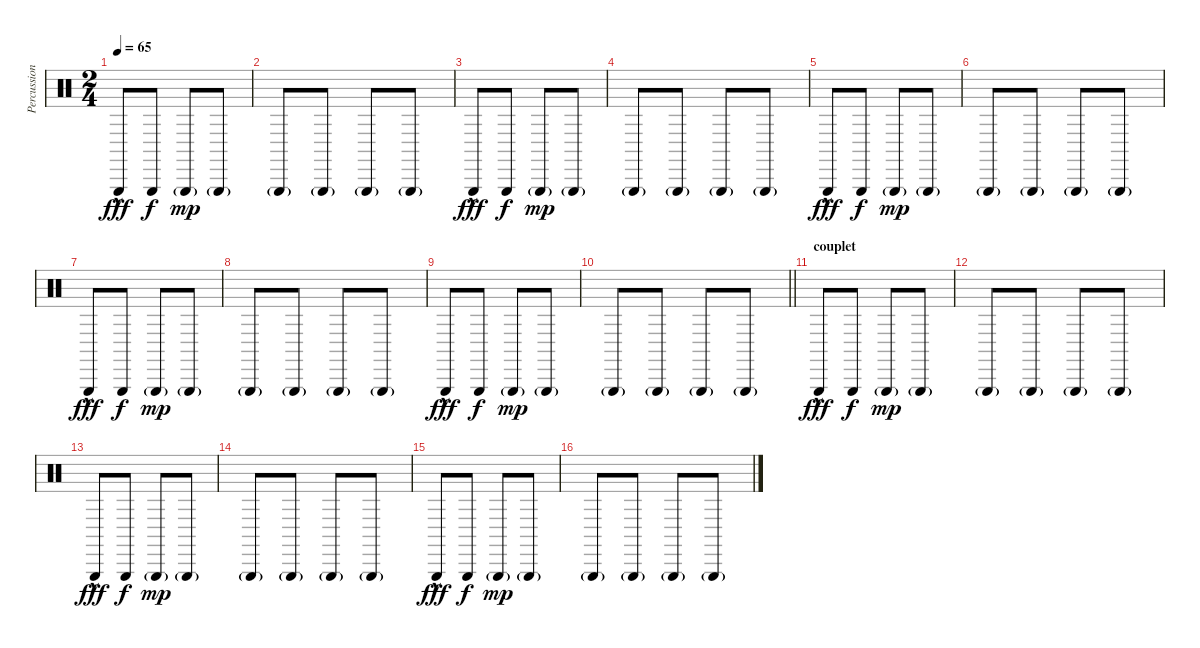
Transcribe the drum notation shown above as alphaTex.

\track ("Percussions" "Percussion") {instrument percussion}
\staff {score}
\articulation defaults
\ts (2 4)
\tempo 65
\clef neutral
\ks c "Triangle (hit)"{hac}.8{dy fff} "Triangle (hit)".8{dy f} "Triangle (hit)"{g}.8{dy mp} "Triangle (hit)"{g}.8
|
"Triangle (hit)"{g}.8 "Triangle (hit)"{g}.8 "Triangle (hit)"{g}.8 "Triangle (hit)"{g}.8 |
"Triangle (hit)"{hac}.8{dy fff} "Triangle (hit)".8{dy f} "Triangle (hit)"{g}.8{dy mp} "Triangle (hit)"{g}.8 |
"Triangle (hit)"{g}.8 "Triangle (hit)"{g}.8 "Triangle (hit)"{g}.8 "Triangle (hit)"{g}.8 |
"Triangle (hit)"{hac}.8{dy fff} "Triangle (hit)".8{dy f} "Triangle (hit)"{g}.8{dy mp} "Triangle (hit)"{g}.8 |
"Triangle (hit)"{g}.8 "Triangle (hit)"{g}.8 "Triangle (hit)"{g}.8 "Triangle (hit)"{g}.8 |
"Triangle (hit)"{hac}.8{dy fff} "Triangle (hit)".8{dy f} "Triangle (hit)"{g}.8{dy mp} "Triangle (hit)"{g}.8 |
"Triangle (hit)"{g}.8 "Triangle (hit)"{g}.8 "Triangle (hit)"{g}.8 "Triangle (hit)"{g}.8 |
"Triangle (hit)"{hac}.8{dy fff} "Triangle (hit)".8{dy f} "Triangle (hit)"{g}.8{dy mp} "Triangle (hit)"{g}.8 |
\barLineRight lightlight "Triangle (hit)"{g}.8 "Triangle (hit)"{g}.8 "Triangle (hit)"{g}.8 "Triangle (hit)"{g}.8
|
\section ("" "couplet ")
"Triangle (hit)"{hac}.8{dy fff} "Triangle (hit)".8{dy f} "Triangle (hit)"{g}.8{dy mp} "Triangle (hit)"{g}.8 |
"Triangle (hit)"{g}.8 "Triangle (hit)"{g}.8 "Triangle (hit)"{g}.8 "Triangle (hit)"{g}.8 |
"Triangle (hit)"{hac}.8{dy fff} "Triangle (hit)".8{dy f} "Triangle (hit)"{g}.8{dy mp} "Triangle (hit)"{g}.8 |
"Triangle (hit)"{g}.8 "Triangle (hit)"{g}.8 "Triangle (hit)"{g}.8 "Triangle (hit)"{g}.8 |
"Triangle (hit)"{hac}.8{dy fff} "Triangle (hit)".8{dy f} "Triangle (hit)"{g}.8{dy mp} "Triangle (hit)"{g}.8 |
"Triangle (hit)"{g}.8 "Triangle (hit)"{g}.8 "Triangle (hit)"{g}.8 "Triangle (hit)"{g}.8
